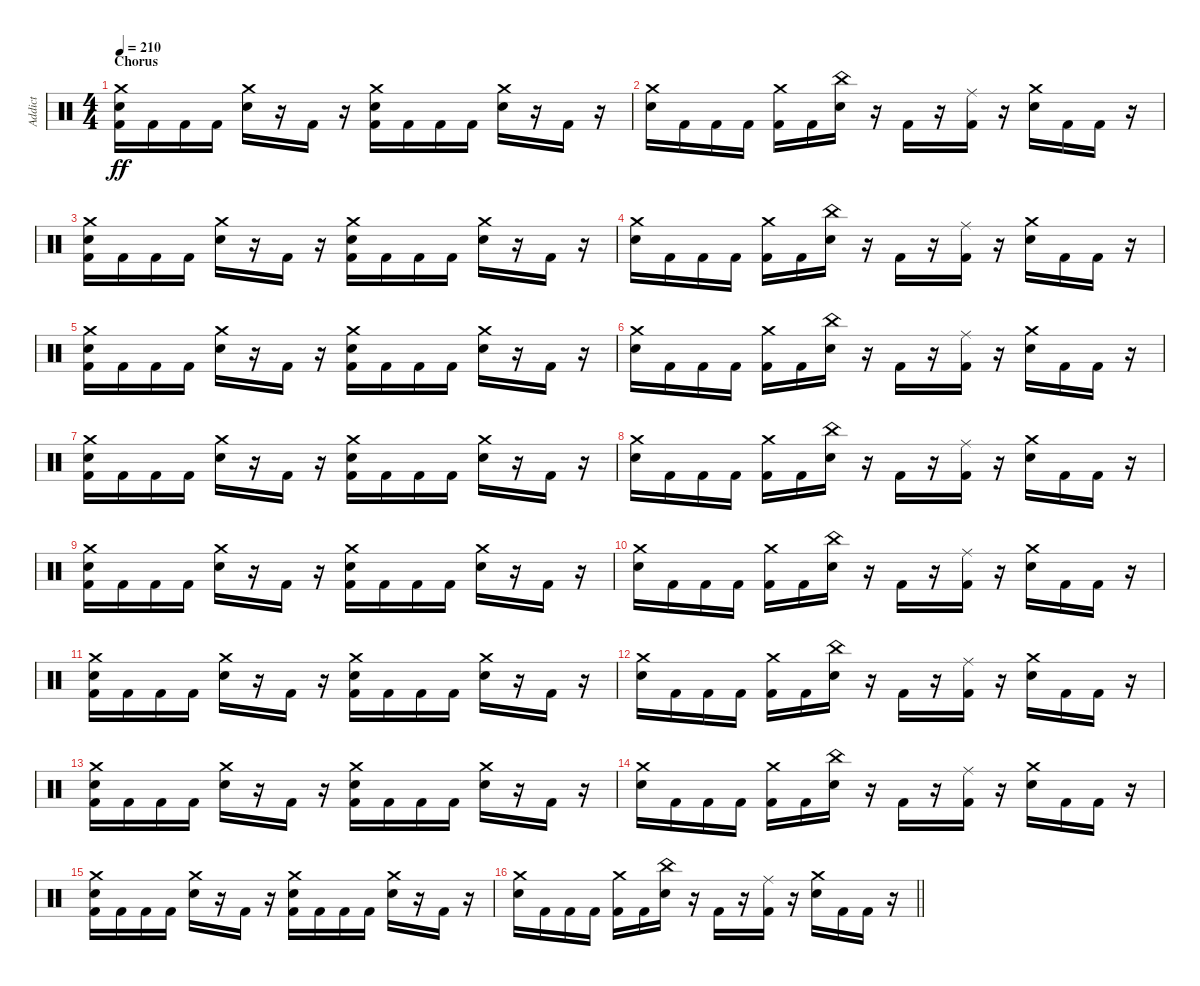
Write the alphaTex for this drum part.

\track ("Addict" "Addict") {instrument percussion}
\staff {score}
\articulation defaults
\ts (4 4)
\section ("" "Chorus")
\tempo 210
\clef neutral
\ks c
("Kick (hit) 2" "Snare (hit) 2" "Crash medium (hit)").16{dy ff} "Kick (hit) 2".16 "Kick (hit) 2".16 "Kick (hit) 2".16 ("Snare (hit) 2" "Crash medium (hit)").16 r.16 "Kick (hit) 2".16 r.16 ("Kick (hit) 2" "Snare (hit) 2" "Crash medium (hit)").16 "Kick (hit) 2".16 "Kick (hit) 2".16 "Kick (hit) 2".16 ("Snare (hit) 2" "Crash medium (hit)").16 r.16 "Kick (hit) 2".16 r.16 |
("Snare (hit) 2" "Crash medium (hit)").16 "Kick (hit) 2".16 "Kick (hit) 2".16 "Kick (hit) 2".16 ("Kick (hit) 2" "Crash medium (hit)").16 "Kick (hit) 2".16 ("Snare (hit) 2" "China (hit)").16 r.16 "Kick (hit) 2".16 r.16 ("Kick (hit) 2" "Ride (middle)").16 r.16 ("Snare (hit) 2" "Crash medium (hit)").16 "Kick (hit) 2".16 "Kick (hit) 2".16 r.16 |
("Kick (hit) 2" "Snare (hit) 2" "Crash medium (hit)").16 "Kick (hit) 2".16 "Kick (hit) 2".16 "Kick (hit) 2".16 ("Snare (hit) 2" "Crash medium (hit)").16 r.16 "Kick (hit) 2".16 r.16 ("Kick (hit) 2" "Snare (hit) 2" "Crash medium (hit)").16 "Kick (hit) 2".16 "Kick (hit) 2".16 "Kick (hit) 2".16 ("Snare (hit) 2" "Crash medium (hit)").16 r.16 "Kick (hit) 2".16 r.16 |
("Snare (hit) 2" "Crash medium (hit)").16 "Kick (hit) 2".16 "Kick (hit) 2".16 "Kick (hit) 2".16 ("Kick (hit) 2" "Crash medium (hit)").16 "Kick (hit) 2".16 ("Snare (hit) 2" "China (hit)").16 r.16 "Kick (hit) 2".16 r.16 ("Kick (hit) 2" "Ride (middle)").16 r.16 ("Snare (hit) 2" "Crash medium (hit)").16 "Kick (hit) 2".16 "Kick (hit) 2".16 r.16 |
("Kick (hit) 2" "Snare (hit) 2" "Crash medium (hit)").16 "Kick (hit) 2".16 "Kick (hit) 2".16 "Kick (hit) 2".16 ("Snare (hit) 2" "Crash medium (hit)").16 r.16 "Kick (hit) 2".16 r.16 ("Kick (hit) 2" "Snare (hit) 2" "Crash medium (hit)").16 "Kick (hit) 2".16 "Kick (hit) 2".16 "Kick (hit) 2".16 ("Snare (hit) 2" "Crash medium (hit)").16 r.16 "Kick (hit) 2".16 r.16 |
("Snare (hit) 2" "Crash medium (hit)").16 "Kick (hit) 2".16 "Kick (hit) 2".16 "Kick (hit) 2".16 ("Kick (hit) 2" "Crash medium (hit)").16 "Kick (hit) 2".16 ("Snare (hit) 2" "China (hit)").16 r.16 "Kick (hit) 2".16 r.16 ("Kick (hit) 2" "Ride (middle)").16 r.16 ("Snare (hit) 2" "Crash medium (hit)").16 "Kick (hit) 2".16 "Kick (hit) 2".16 r.16 |
("Kick (hit) 2" "Snare (hit) 2" "Crash medium (hit)").16 "Kick (hit) 2".16 "Kick (hit) 2".16 "Kick (hit) 2".16 ("Snare (hit) 2" "Crash medium (hit)").16 r.16 "Kick (hit) 2".16 r.16 ("Kick (hit) 2" "Snare (hit) 2" "Crash medium (hit)").16 "Kick (hit) 2".16 "Kick (hit) 2".16 "Kick (hit) 2".16 ("Snare (hit) 2" "Crash medium (hit)").16 r.16 "Kick (hit) 2".16 r.16 |
("Snare (hit) 2" "Crash medium (hit)").16 "Kick (hit) 2".16 "Kick (hit) 2".16 "Kick (hit) 2".16 ("Kick (hit) 2" "Crash medium (hit)").16 "Kick (hit) 2".16 ("Snare (hit) 2" "China (hit)").16 r.16 "Kick (hit) 2".16 r.16 ("Kick (hit) 2" "Ride (middle)").16 r.16 ("Snare (hit) 2" "Crash medium (hit)").16 "Kick (hit) 2".16 "Kick (hit) 2".16 r.16 |
("Kick (hit) 2" "Snare (hit) 2" "Crash medium (hit)").16 "Kick (hit) 2".16 "Kick (hit) 2".16 "Kick (hit) 2".16 ("Snare (hit) 2" "Crash medium (hit)").16 r.16 "Kick (hit) 2".16 r.16 ("Kick (hit) 2" "Snare (hit) 2" "Crash medium (hit)").16 "Kick (hit) 2".16 "Kick (hit) 2".16 "Kick (hit) 2".16 ("Snare (hit) 2" "Crash medium (hit)").16 r.16 "Kick (hit) 2".16 r.16 |
("Snare (hit) 2" "Crash medium (hit)").16 "Kick (hit) 2".16 "Kick (hit) 2".16 "Kick (hit) 2".16 ("Kick (hit) 2" "Crash medium (hit)").16 "Kick (hit) 2".16 ("Snare (hit) 2" "China (hit)").16 r.16 "Kick (hit) 2".16 r.16 ("Kick (hit) 2" "Ride (middle)").16 r.16 ("Snare (hit) 2" "Crash medium (hit)").16 "Kick (hit) 2".16 "Kick (hit) 2".16 r.16 |
("Kick (hit) 2" "Snare (hit) 2" "Crash medium (hit)").16 "Kick (hit) 2".16 "Kick (hit) 2".16 "Kick (hit) 2".16 ("Snare (hit) 2" "Crash medium (hit)").16 r.16 "Kick (hit) 2".16 r.16 ("Kick (hit) 2" "Snare (hit) 2" "Crash medium (hit)").16 "Kick (hit) 2".16 "Kick (hit) 2".16 "Kick (hit) 2".16 ("Snare (hit) 2" "Crash medium (hit)").16 r.16 "Kick (hit) 2".16 r.16 |
("Snare (hit) 2" "Crash medium (hit)").16 "Kick (hit) 2".16 "Kick (hit) 2".16 "Kick (hit) 2".16 ("Kick (hit) 2" "Crash medium (hit)").16 "Kick (hit) 2".16 ("Snare (hit) 2" "China (hit)").16 r.16 "Kick (hit) 2".16 r.16 ("Kick (hit) 2" "Ride (middle)").16 r.16 ("Snare (hit) 2" "Crash medium (hit)").16 "Kick (hit) 2".16 "Kick (hit) 2".16 r.16 |
("Kick (hit) 2" "Snare (hit) 2" "Crash medium (hit)").16 "Kick (hit) 2".16 "Kick (hit) 2".16 "Kick (hit) 2".16 ("Snare (hit) 2" "Crash medium (hit)").16 r.16 "Kick (hit) 2".16 r.16 ("Kick (hit) 2" "Snare (hit) 2" "Crash medium (hit)").16 "Kick (hit) 2".16 "Kick (hit) 2".16 "Kick (hit) 2".16 ("Snare (hit) 2" "Crash medium (hit)").16 r.16 "Kick (hit) 2".16 r.16 |
("Snare (hit) 2" "Crash medium (hit)").16 "Kick (hit) 2".16 "Kick (hit) 2".16 "Kick (hit) 2".16 ("Kick (hit) 2" "Crash medium (hit)").16 "Kick (hit) 2".16 ("Snare (hit) 2" "China (hit)").16 r.16 "Kick (hit) 2".16 r.16 ("Kick (hit) 2" "Ride (middle)").16 r.16 ("Snare (hit) 2" "Crash medium (hit)").16 "Kick (hit) 2".16 "Kick (hit) 2".16 r.16 |
("Kick (hit) 2" "Snare (hit) 2" "Crash medium (hit)").16 "Kick (hit) 2".16 "Kick (hit) 2".16 "Kick (hit) 2".16 ("Snare (hit) 2" "Crash medium (hit)").16 r.16 "Kick (hit) 2".16 r.16 ("Kick (hit) 2" "Snare (hit) 2" "Crash medium (hit)").16 "Kick (hit) 2".16 "Kick (hit) 2".16 "Kick (hit) 2".16 ("Snare (hit) 2" "Crash medium (hit)").16 r.16 "Kick (hit) 2".16 r.16 |
\barLineRight lightlight
("Snare (hit) 2" "Crash medium (hit)").16 "Kick (hit) 2".16 "Kick (hit) 2".16 "Kick (hit) 2".16 ("Kick (hit) 2" "Crash medium (hit)").16 "Kick (hit) 2".16 ("Snare (hit) 2" "China (hit)").16 r.16 "Kick (hit) 2".16 r.16 ("Kick (hit) 2" "Ride (middle)").16 r.16 ("Snare (hit) 2" "Crash medium (hit)").16 "Kick (hit) 2".16 "Kick (hit) 2".16 r.16
